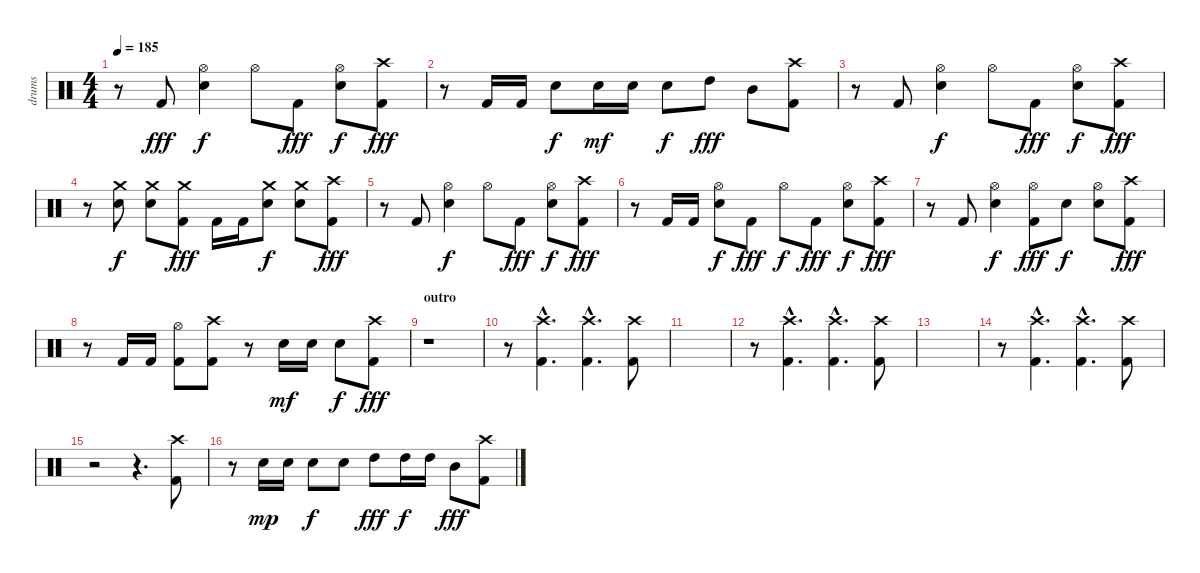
\track ("drums" "drums") {instrument percussion}
\staff {score}
\articulation defaults
\ts (4 4)
\tempo 185
\clef neutral
\ks c
r.8{dy fff} "Kick (hit) 2".8 ("Hi-Hat (open)" "Snare (hit) 2").4{dy f} "Hi-Hat (open)".8 "Kick (hit) 2".8{dy fff} ("Hi-Hat (open)" "Snare (hit) 2").8{dy f} ("Crash high (hit)" "Kick (hit) 2").8{dy fff} |
r.8 "Kick (hit) 2".16 "Kick (hit) 2".16 "Snare (hit) 2".8{dy f} "Snare (hit) 2".16{dy mf} "Snare (hit) 2".16 "Snare (hit) 2".8{dy f} "High Tom (hit)".8{dy fff} "Mid Tom (hit)".8 ("Crash high (hit)" "Kick (hit) 2").8 |
r.8 "Kick (hit) 2".8 ("Hi-Hat (open)" "Snare (hit) 2").4{dy f} "Hi-Hat (open)".8 "Kick (hit) 2".8{dy fff} ("Hi-Hat (open)" "Snare (hit) 2").8{dy f} ("Crash high (hit)" "Kick (hit) 2").8{dy fff} |
r.8 ("Crash medium (hit)" "Snare (hit) 2").8{dy f} ("Crash medium (hit)" "Snare (hit) 2").8 ("Crash medium (hit)" "Kick (hit) 2").8{dy fff} "Kick (hit) 2".16 "Kick (hit) 2".16 ("Crash medium (hit)" "Snare (hit) 2").8{dy f} ("Crash medium (hit)" "Snare (hit) 2").8 ("Crash high (hit)" "Kick (hit) 2").8{dy fff} |
r.8 "Kick (hit) 2".8 ("Hi-Hat (open)" "Snare (hit) 2").4{dy f} "Hi-Hat (open)".8 "Kick (hit) 2".8{dy fff} ("Hi-Hat (open)" "Snare (hit) 2").8{dy f} ("Crash high (hit)" "Kick (hit) 2").8{dy fff} |
r.8 "Kick (hit) 2".16 "Kick (hit) 2".16 ("Hi-Hat (open)" "Snare (hit) 2").8{dy f} "Kick (hit) 2".8{dy fff} "Hi-Hat (open)".8{dy f} "Kick (hit) 2".8{dy fff} ("Hi-Hat (open)" "Snare (hit) 2").8{dy f} ("Crash high (hit)" "Kick (hit) 2").8{dy fff} |
r.8 "Kick (hit) 2".8 ("Hi-Hat (open)" "Snare (hit) 2").4{dy f} ("Hi-Hat (open)" "Kick (hit) 2").8{dy fff} "Snare (hit) 2".8{dy f} ("Hi-Hat (open)" "Snare (hit) 2").8 ("Crash high (hit)" "Kick (hit) 2").8{dy fff} |
r.8 "Kick (hit) 2".16 "Kick (hit) 2".16 ("Hi-Hat (open)" "Kick (hit) 2").8 ("Crash high (hit)" "Kick (hit) 2").8 r.8 "Snare (hit) 2".16{dy mf} "Snare (hit) 2".16 "Snare (hit) 2".8{dy f} ("Crash high (hit)" "Kick (hit) 2").8{dy fff} |
\section ("" "outro")
r.1 |
r.8 ("Crash high (hit)"{hac} "Kick (hit) 2"{hac}).4{d} ("Crash high (hit)"{hac} "Kick (hit) 2"{hac}).4{d} ("Crash high (hit)" "Kick (hit) 2").8 |
|
r.8 ("Crash high (hit)"{hac} "Kick (hit) 2"{hac}).4{d} ("Crash high (hit)"{hac} "Kick (hit) 2"{hac}).4{d} ("Crash high (hit)" "Kick (hit) 2").8 |
|
r.8 ("Crash high (hit)"{hac} "Kick (hit) 2"{hac}).4{d} ("Crash high (hit)"{hac} "Kick (hit) 2"{hac}).4{d} ("Crash high (hit)" "Kick (hit) 2").8 |
r.2 r.4{d} ("Crash high (hit)" "Kick (hit) 2").8 |
r.8 "Snare (hit) 2".16{dy mp} "Snare (hit) 2".16 "Snare (hit) 2".8{dy f} "Snare (hit) 2".8 "High Tom (hit)".8{dy fff} "High Tom (hit)".16{dy f} "High Tom (hit)".16 "Mid Tom (hit)".8{dy fff} ("Crash high (hit)" "Kick (hit) 2").8
